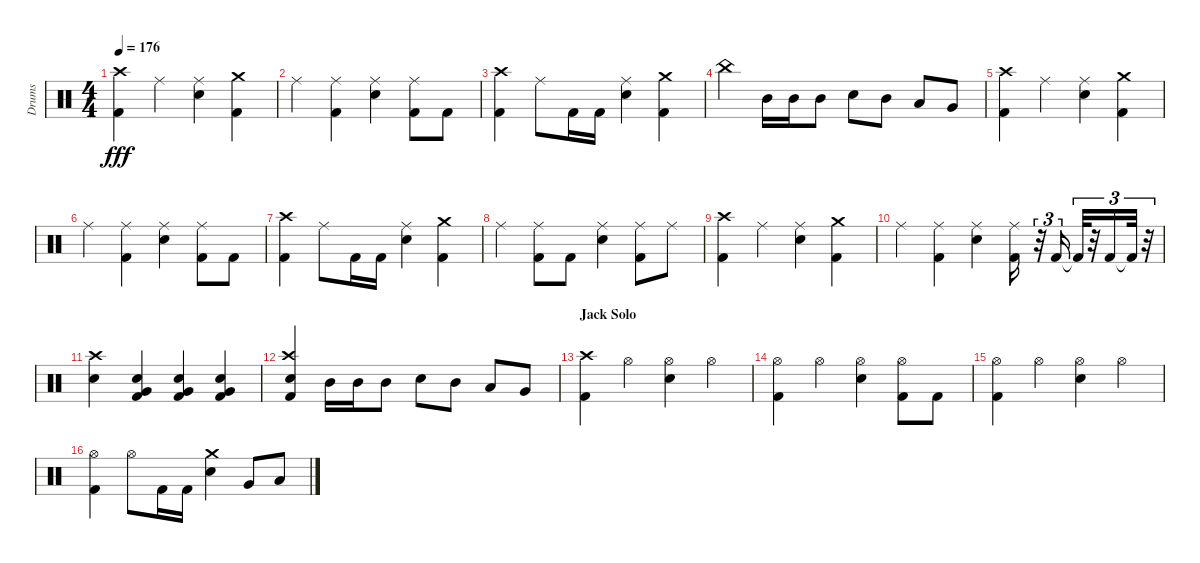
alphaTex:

\track ("Drums" "Drums") {instrument percussion}
\staff {score}
\articulation defaults
\ts (4 4)
\tempo 176
\clef neutral
\ks aminor
("Kick (hit) 2" "Crash high (hit)").4{dy fff} "Ride (middle)".4 ("Ride (middle)" "Snare (hit) 2").4 ("Crash medium (hit)" "Kick (hit) 2").4 |
"Ride (middle)".4 ("Ride (middle)" "Kick (hit) 2").4 ("Ride (middle)" "Snare (hit) 2").4 ("Ride (middle)" "Kick (hit) 2").8 "Kick (hit) 2".8 |
("Crash high (hit)" "Kick (hit) 2").4 "Ride (middle)".8 "Kick (hit) 2".16 "Kick (hit) 2".16 ("Snare (hit) 2" "Ride (middle)").4 ("Crash medium (hit)" "Kick (hit) 2").4 |
"China (hit)".4 "Mid Tom (hit)".16 "Mid Tom (hit)".16 "Mid Tom (hit)".8 "Snare (hit) 2".8 "Mid Tom (hit)".8 "Low Tom (hit)".8 "Very Low Tom (hit)".8 |
("Crash high (hit)" "Kick (hit) 2").4 "Ride (middle)".4 ("Snare (hit) 2" "Ride (middle)").4 ("Kick (hit) 2" "Crash medium (hit)").4 |
"Ride (middle)".4 ("Ride (middle)" "Kick (hit) 2").4 ("Ride (middle)" "Snare (hit) 2").4 ("Ride (middle)" "Kick (hit) 2").8 "Kick (hit) 2".8 |
("Kick (hit) 2" "Crash high (hit)").4 "Ride (middle)".8 "Kick (hit) 2".16 "Kick (hit) 2".16 ("Ride (middle)" "Snare (hit) 2").4 ("Kick (hit) 2" "Crash medium (hit)").4 |
"Ride (middle)".4 ("Kick (hit) 2" "Ride (middle)").8 "Kick (hit) 2".8 ("Snare (hit) 2" "Ride (middle)").4 ("Kick (hit) 2" "Ride (middle)").8 "Ride (middle)".8 |
("Crash high (hit)" "Kick (hit) 2").4 "Ride (middle)".4 ("Snare (hit) 2" "Ride (middle)").4 ("Kick (hit) 2" "Crash medium (hit)").4 |
"Ride (middle)".4 ("Kick (hit) 2" "Ride (middle)").4 ("Snare (hit) 2" "Ride (middle)").4 ("Ride (middle)" "Kick (hit) 2").16 r.32{tu (3 2)} "Kick (hit) 2".16{tu (3 2)} "Kick (hit) 2"{t}.32{tu (3 2)} r.32{tu (3 2)} "Kick (hit) 2".16{tu (3 2)} "Kick (hit) 2"{t}.32{tu (3 2)} r.32{tu (3 2)} |
("Crash high (hit)" "Snare (hit) 2").4 ("Kick (hit) 2" "Very Low Tom (hit)" "Snare (hit) 2").4 ("Kick (hit) 2" "Snare (hit) 2" "Very Low Tom (hit)").4 ("Kick (hit) 2" "Snare (hit) 2" "Very Low Tom (hit)").4 |
("Kick (hit) 2" "Crash high (hit)" "Snare (hit) 2").4 "Mid Tom (hit)".16 "Mid Tom (hit)".16 "Mid Tom (hit)".8 "Snare (hit) 2".8 "Mid Tom (hit)".8 "Low Tom (hit)".8 "Very Low Tom (hit)".8 |
\section ("" "Jack Solo")
("Kick (hit) 2" "Crash high (hit)").4 "Hi-Hat (open)".4 ("Snare (hit) 2" "Hi-Hat (open)").4 "Hi-Hat (open)".4 |
("Hi-Hat (open)" "Kick (hit) 2").4 "Hi-Hat (open)".4 ("Snare (hit) 2" "Hi-Hat (open)").4 ("Kick (hit) 2" "Hi-Hat (open)").8 "Kick (hit) 2".8 |
("Hi-Hat (open)" "Kick (hit) 2").4 "Hi-Hat (open)".4 ("Hi-Hat (open)" "Snare (hit) 2").4 "Hi-Hat (open)".4 |
("Hi-Hat (open)" "Kick (hit) 2").4 "Hi-Hat (open)".8 "Kick (hit) 2".16 "Kick (hit) 2".16 ("Crash medium (hit)" "Snare (hit) 2").4 "Very Low Tom (hit)".8 "Low Floor Tom (hit)".8
